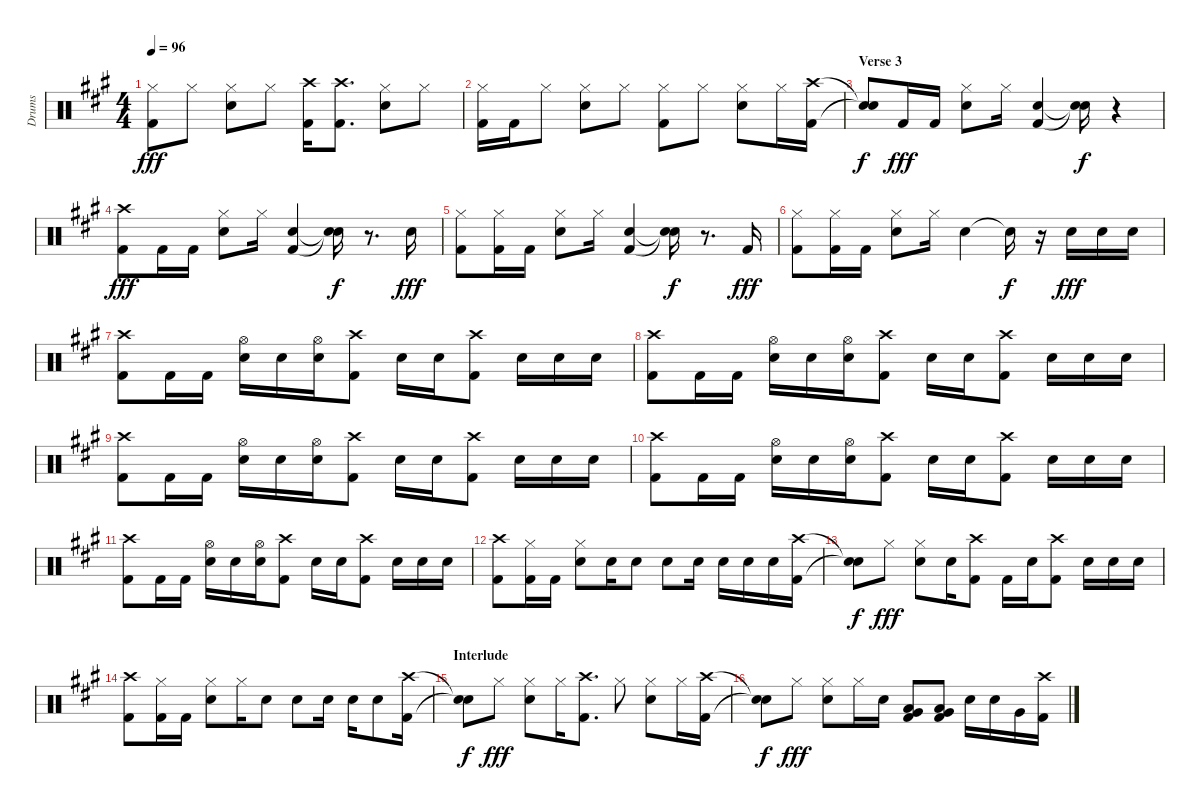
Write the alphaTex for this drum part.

\track ("Drums" "Drums") {instrument percussion}
\staff {score}
\articulation defaults
\ts (4 4)
\tempo 96
\clef neutral
\ks a
("Kick (hit) 2" "Hi-Hat (closed)").8{dy fff} "Hi-Hat (closed)".8 ("Electric Snare (hit)" "Hi-Hat (closed)").8 "Hi-Hat (closed)".8 ("Kick (hit) 2" "Crash high (hit)").16 ("Kick (hit) 2" "Crash high (hit)").8{d} ("Electric Snare (hit)" "Hi-Hat (closed)").8 "Hi-Hat (closed)".8 |
("Kick (hit) 2" "Hi-Hat (closed)").16 "Kick (hit) 2".16 "Hi-Hat (closed)".8 ("Electric Snare (hit)" "Hi-Hat (closed)").8 "Hi-Hat (closed)".8 ("Kick (hit) 2" "Hi-Hat (closed)").8 "Hi-Hat (closed)".8 ("Electric Snare (hit)" "Hi-Hat (closed)").8 "Hi-Hat (closed)".16 ("Kick (hit) 2" "Crash high (hit)").16 |
\section ("" "Verse 3")
("Snare (hit)"{t} "Snare (hit)"{t}).8{dy f} "Kick (hit) 2".16{dy fff} "Kick (hit) 2".16 ("Electric Snare (hit)" "Hi-Hat (closed)").8 "Hi-Hat (closed)".16 ("Kick (hit) 2" "Electric Snare (hit)").4 ("Snare (hit)"{t} "Snare (hit)"{t}).16{dy f} r.4 |
("Crash high (hit)" "Kick (hit) 2").8{dy fff} "Kick (hit) 2".16 "Kick (hit) 2".16 ("Electric Snare (hit)" "Hi-Hat (closed)").8 "Hi-Hat (closed)".16 ("Kick (hit) 2" "Electric Snare (hit)").4 ("Snare (hit)"{t} "Snare (hit)"{t}).16{dy f} r.8{d} "Electric Snare (hit)".16{dy fff} |
("Kick (hit) 2" "Hi-Hat (closed)").8 ("Kick (hit) 2" "Hi-Hat (closed)").16 "Kick (hit) 2".16 ("Electric Snare (hit)" "Hi-Hat (closed)").8 "Hi-Hat (closed)".16 ("Electric Snare (hit)" "Kick (hit) 2").4 ("Snare (hit)"{t} "Snare (hit)"{t}).16{dy f} r.8{d} "Kick (hit) 2".16{dy fff} |
("Kick (hit) 2" "Hi-Hat (closed)").8 ("Kick (hit) 2" "Hi-Hat (closed)").16 "Kick (hit) 2".16 ("Electric Snare (hit)" "Hi-Hat (closed)").8 "Hi-Hat (closed)".16 "Electric Snare (hit)".4 "Snare (hit)"{t}.16{dy f} r.16 "Electric Snare (hit)".16{dy fff} "Electric Snare (hit)".16 "Electric Snare (hit)".16 |
("Kick (hit) 2" "Crash high (hit)").8 "Kick (hit) 2".16 "Kick (hit) 2".16 ("Electric Snare (hit)" "Hi-Hat (open)").16 "Electric Snare (hit)".16 ("Hi-Hat (open)" "Electric Snare (hit)").16 ("Crash high (hit)" "Kick (hit) 2").8 "Electric Snare (hit)".16 "Electric Snare (hit)".16 ("Crash high (hit)" "Kick (hit) 2").8 "Electric Snare (hit)".16 "Electric Snare (hit)".16 "Electric Snare (hit)".16 |
("Kick (hit) 2" "Crash high (hit)").8 "Kick (hit) 2".16 "Kick (hit) 2".16 ("Hi-Hat (open)" "Electric Snare (hit)").16 "Electric Snare (hit)".16 ("Hi-Hat (open)" "Electric Snare (hit)").16 ("Crash high (hit)" "Kick (hit) 2").8 "Electric Snare (hit)".16 "Electric Snare (hit)".16 ("Crash high (hit)" "Kick (hit) 2").8 "Electric Snare (hit)".16 "Electric Snare (hit)".16 "Electric Snare (hit)".16 |
("Kick (hit) 2" "Crash high (hit)").8 "Kick (hit) 2".16 "Kick (hit) 2".16 ("Hi-Hat (open)" "Electric Snare (hit)").16 "Electric Snare (hit)".16 ("Hi-Hat (open)" "Electric Snare (hit)").16 ("Crash high (hit)" "Kick (hit) 2").8 "Electric Snare (hit)".16 "Electric Snare (hit)".16 ("Crash high (hit)" "Kick (hit) 2").8 "Electric Snare (hit)".16 "Electric Snare (hit)".16 "Electric Snare (hit)".16 |
("Kick (hit) 2" "Crash high (hit)").8 "Kick (hit) 2".16 "Kick (hit) 2".16 ("Hi-Hat (open)" "Electric Snare (hit)").16 "Electric Snare (hit)".16 ("Hi-Hat (open)" "Electric Snare (hit)").16 ("Crash high (hit)" "Kick (hit) 2").8 "Electric Snare (hit)".16 "Electric Snare (hit)".16 ("Crash high (hit)" "Kick (hit) 2").8 "Electric Snare (hit)".16 "Electric Snare (hit)".16 "Electric Snare (hit)".16 |
("Kick (hit) 2" "Crash high (hit)").8 "Kick (hit) 2".16 "Kick (hit) 2".16 ("Hi-Hat (open)" "Electric Snare (hit)").16 "Electric Snare (hit)".16 ("Hi-Hat (open)" "Electric Snare (hit)").16 ("Crash high (hit)" "Kick (hit) 2").8 "Electric Snare (hit)".16 "Electric Snare (hit)".16 ("Crash high (hit)" "Kick (hit) 2").8 "Electric Snare (hit)".16 "Electric Snare (hit)".16 "Electric Snare (hit)".16 |
("Kick (hit) 2" "Crash high (hit)").8 ("Kick (hit) 2" "Hi-Hat (closed)").16 "Kick (hit) 2".16 ("Electric Snare (hit)" "Hi-Hat (closed)").8 "Electric Snare (hit)".16 "Electric Snare (hit)".8 "Electric Snare (hit)".8 "Electric Snare (hit)".16 "Electric Snare (hit)".16 "Electric Snare (hit)".16 "Electric Snare (hit)".16 ("Crash high (hit)" "Kick (hit) 2").16 |
("Snare (hit)"{t} "Snare (hit)"{t}).8{dy f} "Hi-Hat (closed)".8{dy fff} ("Electric Snare (hit)" "Hi-Hat (closed)").8 "Electric Snare (hit)".16 ("Crash high (hit)" "Kick (hit) 2").8 "Kick (hit) 2".16 "Electric Snare (hit)".16 ("Crash high (hit)" "Kick (hit) 2").8 "Electric Snare (hit)".16 "Electric Snare (hit)".16 "Electric Snare (hit)".16 |
("Kick (hit) 2" "Crash high (hit)").8 ("Kick (hit) 2" "Hi-Hat (closed)").16 "Kick (hit) 2".16 ("Electric Snare (hit)" "Hi-Hat (closed)").8 "Hi-Hat (closed)".16 "Electric Snare (hit)".8 "Electric Snare (hit)".8 "Electric Snare (hit)".16 "Electric Snare (hit)".16 "Electric Snare (hit)".8 ("Crash high (hit)" "Kick (hit) 2").16 |
\section ("" "Interlude")
("Snare (hit)"{t} "Snare (hit)"{t}).8{dy f} "Hi-Hat (closed)".8{dy fff} ("Electric Snare (hit)" "Hi-Hat (closed)").8 "Hi-Hat (closed)".16 ("Kick (hit) 2" "Crash high (hit)").8{d} "Hi-Hat (closed)".8 ("Electric Snare (hit)" "Hi-Hat (closed)").8 "Hi-Hat (closed)".16 ("Kick (hit) 2" "Crash high (hit)").16 |
("Snare (hit)"{t} "Snare (hit)"{t}).8{dy f} "Hi-Hat (closed)".8{dy fff} ("Electric Snare (hit)" "Hi-Hat (closed)").8 "Hi-Hat (closed)".16 "Electric Snare (hit)".16 ("Low Floor Tom (hit)" "Kick (hit) 2" "Very Low Tom (hit)").8 ("Very Low Tom (hit)" "Low Floor Tom (hit)" "Kick (hit) 2").8 "Electric Snare (hit)".16 "Electric Snare (hit)".16 "Very Low Tom (hit)".16 ("Crash high (hit)" "Kick (hit) 2").16
